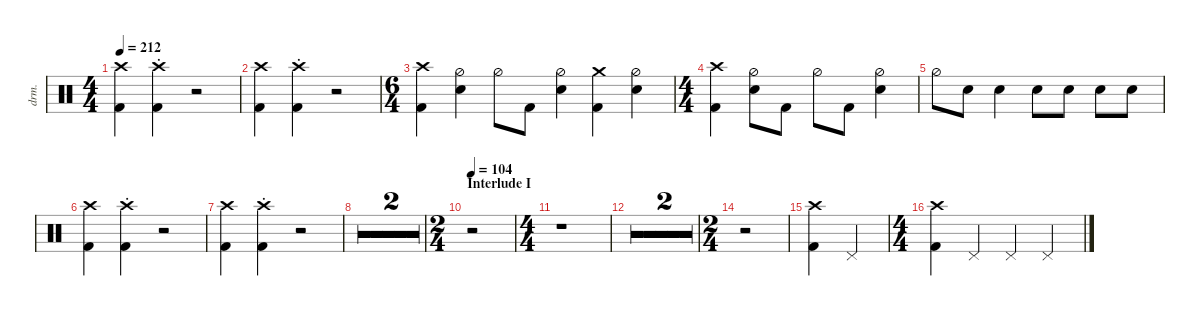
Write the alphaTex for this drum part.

\defaultSystemsLayout 4
\hideDynamics
\bracketExtendMode nobrackets
\track ("Drums" "drm.") {defaultSystemsLayout 4 multiBarRest instrument percussion}
\staff
\articulation defaults
\ts (4 4)
\beaming (8 2 2 2 2)
\tempo 212
\clef neutral
\ks c
("Kick (hit) 2" "Crash high (hit)").4{dy ff} ("Kick (hit) 2" "Crash high (hit)"{st}).4 r.2 |
("Kick (hit) 2" "Crash high (hit)").4 ("Kick (hit) 2" "Crash high (hit)"{st}).4 r.2 |
\ts (6 4)
\beaming (8 6 6)
("Crash high (hit)" "Kick (hit) 2").4{dy f} ("Hi-Hat (half)" "Snare (hit) 2").4 "Hi-Hat (half)".8 "Kick (hit) 2".8 ("Hi-Hat (half)" "Snare (hit) 2").4 ("Kick (hit) 2" "Crash medium (hit)").4 ("Hi-Hat (half)" "Snare (hit) 2").4 |
\ts (4 4)
\beaming (8 2 2 2 2)
("Crash high (hit)" "Kick (hit) 2").4 ("Hi-Hat (half)" "Snare (hit) 2").8 "Kick (hit) 2".8 "Hi-Hat (half)".8 "Kick (hit) 2".8 ("Hi-Hat (half)" "Snare (hit) 2").4 |
"Hi-Hat (half)".8 "Snare (hit) 2".8 "Snare (hit) 2".4 "Snare (hit) 2".8 "Snare (hit) 2".8 "Snare (hit) 2".8 "Snare (hit) 2".8 |
("Kick (hit) 2" "Crash high (hit)").4{dy ff} ("Kick (hit) 2" "Crash high (hit)"{st}).4 r.2 |
("Kick (hit) 2" "Crash high (hit)").4 ("Kick (hit) 2" "Crash high (hit)"{st}).4 r.2 |
r.1 |
r.1 |
\ts (2 4)
\beaming (8 2 2)
\section ("" "Interlude I")
\tempo 104
r.2 |
\ts (4 4)
\beaming (8 2 2 2 2)
r.1 |
r.1 |
r.1 |
\ts (2 4)
\beaming (8 2 2)
r.2 |
("Kick (hit) 2" "Crash high (hit)").4{dy f} "Pedal Hi-Hat (hit)".4{dy mp} |
\ts (4 4)
\beaming (8 2 2 2 2)
("Kick (hit) 2" "Crash high (hit)").4{dy f} "Pedal Hi-Hat (hit)".4{dy mp} "Pedal Hi-Hat (hit)".4 "Pedal Hi-Hat (hit)".4
